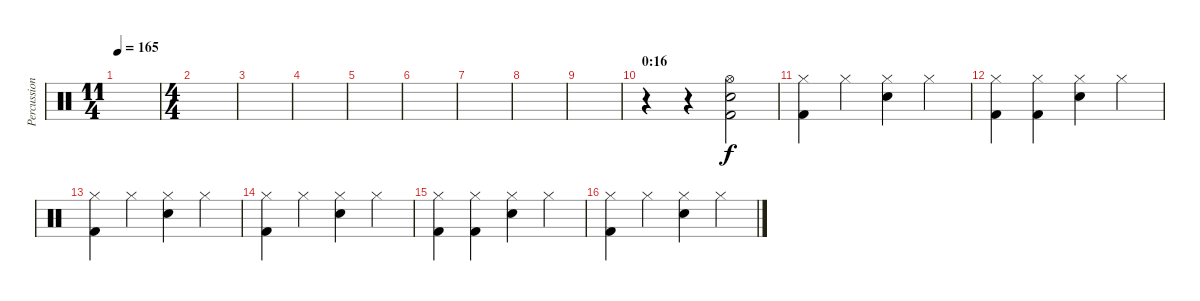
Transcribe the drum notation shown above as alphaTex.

\track ("Percussion" "Percussion") {instrument percussion}
\staff {score}
\articulation defaults
\ts (11 4)
\tempo 165
\clef neutral
\ks c
|
\ts (4 4)
|
|
|
|
|
|
|
|
\section ("" "0:16")
r.4 r.4 ("Hi-Hat (open)" "Electric Snare (hit)" "Kick (hit) 2").2 |
("Hi-Hat (closed)" "Kick (hit) 2").4 "Hi-Hat (closed)".4 ("Hi-Hat (closed)" "Electric Snare (hit)").4 "Hi-Hat (closed)".4 |
("Hi-Hat (closed)" "Kick (hit) 2").4 ("Hi-Hat (closed)" "Kick (hit) 2").4 ("Hi-Hat (closed)" "Electric Snare (hit)").4 "Hi-Hat (closed)".4 |
("Hi-Hat (closed)" "Kick (hit) 2").4 "Hi-Hat (closed)".4 ("Hi-Hat (closed)" "Electric Snare (hit)").4 "Hi-Hat (closed)".4 |
("Hi-Hat (closed)" "Kick (hit) 2").4 "Hi-Hat (closed)".4 ("Hi-Hat (closed)" "Electric Snare (hit)").4 "Hi-Hat (closed)".4 |
("Hi-Hat (closed)" "Kick (hit) 2").4 ("Hi-Hat (closed)" "Kick (hit) 2").4 ("Hi-Hat (closed)" "Electric Snare (hit)").4 "Hi-Hat (closed)".4 |
("Hi-Hat (closed)" "Kick (hit) 2").4 "Hi-Hat (closed)".4 ("Hi-Hat (closed)" "Electric Snare (hit)").4 "Hi-Hat (closed)".4
